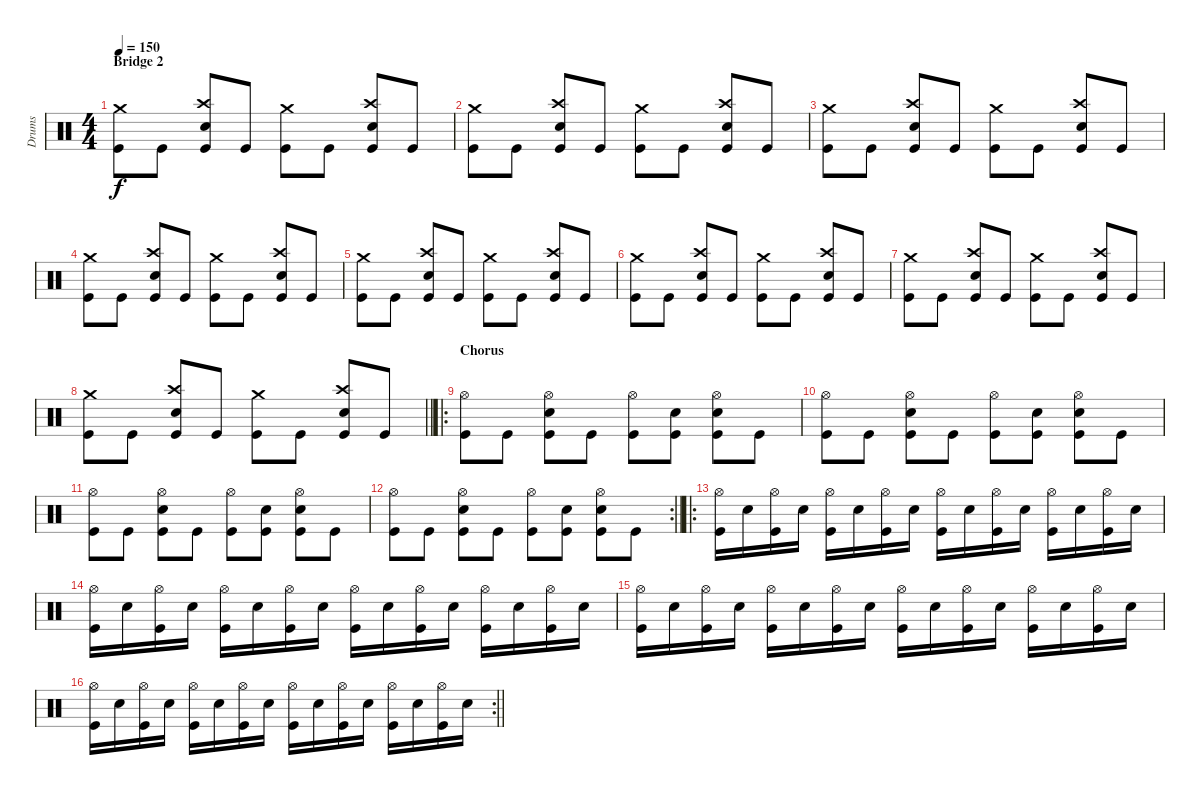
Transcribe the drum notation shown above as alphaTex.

\track ("Drums" "Drums") {instrument percussion}
\staff {score}
\articulation defaults
\ts (4 4)
\section ("" "Bridge 2")
\tempo 150
\clef neutral
\ks c
("Crash medium (hit)" "Kick (hit)").8{dy f} "Kick (hit)".8 ("Crash high (hit)" "Snare (hit) 2" "Kick (hit)").8 "Kick (hit)".8 ("Crash medium (hit)" "Kick (hit)").8 "Kick (hit)".8 ("Crash high (hit)" "Snare (hit) 2" "Kick (hit)").8 "Kick (hit)".8 |
("Crash medium (hit)" "Kick (hit)").8 "Kick (hit)".8 ("Crash high (hit)" "Snare (hit) 2" "Kick (hit)").8 "Kick (hit)".8 ("Crash medium (hit)" "Kick (hit)").8 "Kick (hit)".8 ("Crash high (hit)" "Snare (hit) 2" "Kick (hit)").8 "Kick (hit)".8 |
("Crash medium (hit)" "Kick (hit)").8 "Kick (hit)".8 ("Crash high (hit)" "Snare (hit) 2" "Kick (hit)").8 "Kick (hit)".8 ("Crash medium (hit)" "Kick (hit)").8 "Kick (hit)".8 ("Crash high (hit)" "Snare (hit) 2" "Kick (hit)").8 "Kick (hit)".8 |
("Crash medium (hit)" "Kick (hit)").8 "Kick (hit)".8 ("Crash high (hit)" "Snare (hit) 2" "Kick (hit)").8 "Kick (hit)".8 ("Crash medium (hit)" "Kick (hit)").8 "Kick (hit)".8 ("Crash high (hit)" "Snare (hit) 2" "Kick (hit)").8 "Kick (hit)".8 |
("Crash medium (hit)" "Kick (hit)").8 "Kick (hit)".8 ("Crash high (hit)" "Snare (hit) 2" "Kick (hit)").8 "Kick (hit)".8 ("Crash medium (hit)" "Kick (hit)").8 "Kick (hit)".8 ("Crash high (hit)" "Snare (hit) 2" "Kick (hit)").8 "Kick (hit)".8 |
("Crash medium (hit)" "Kick (hit)").8 "Kick (hit)".8 ("Crash high (hit)" "Snare (hit) 2" "Kick (hit)").8 "Kick (hit)".8 ("Crash medium (hit)" "Kick (hit)").8 "Kick (hit)".8 ("Crash high (hit)" "Snare (hit) 2" "Kick (hit)").8 "Kick (hit)".8 |
("Crash medium (hit)" "Kick (hit)").8 "Kick (hit)".8 ("Crash high (hit)" "Snare (hit) 2" "Kick (hit)").8 "Kick (hit)".8 ("Crash medium (hit)" "Kick (hit)").8 "Kick (hit)".8 ("Crash high (hit)" "Snare (hit) 2" "Kick (hit)").8 "Kick (hit)".8 |
\barLineRight lightlight
("Crash medium (hit)" "Kick (hit)").8 "Kick (hit)".8 ("Crash high (hit)" "Snare (hit) 2" "Kick (hit)").8 "Kick (hit)".8 ("Crash medium (hit)" "Kick (hit)").8 "Kick (hit)".8 ("Crash high (hit)" "Snare (hit) 2" "Kick (hit)").8 "Kick (hit)".8 |
\ro
\section ("" "Chorus")
("Hi-Hat (open)" "Kick (hit)").8 "Kick (hit)".8 ("Hi-Hat (open)" "Snare (hit) 2" "Kick (hit)").8 "Kick (hit)".8 ("Hi-Hat (open)" "Kick (hit)").8 ("Snare (hit) 2" "Kick (hit)").8 ("Hi-Hat (open)" "Snare (hit) 2" "Kick (hit)").8 "Kick (hit)".8 |
("Hi-Hat (open)" "Kick (hit)").8 "Kick (hit)".8 ("Hi-Hat (open)" "Snare (hit) 2" "Kick (hit)").8 "Kick (hit)".8 ("Hi-Hat (open)" "Kick (hit)").8 ("Snare (hit) 2" "Kick (hit)").8 ("Hi-Hat (open)" "Snare (hit) 2" "Kick (hit)").8 "Kick (hit)".8 |
("Hi-Hat (open)" "Kick (hit)").8 "Kick (hit)".8 ("Hi-Hat (open)" "Snare (hit) 2" "Kick (hit)").8 "Kick (hit)".8 ("Hi-Hat (open)" "Kick (hit)").8 ("Snare (hit) 2" "Kick (hit)").8 ("Hi-Hat (open)" "Snare (hit) 2" "Kick (hit)").8 "Kick (hit)".8 |
\rc 2
\barLineRight lightlight
("Hi-Hat (open)" "Kick (hit)").8 "Kick (hit)".8 ("Hi-Hat (open)" "Snare (hit) 2" "Kick (hit)").8 "Kick (hit)".8 ("Hi-Hat (open)" "Kick (hit)").8 ("Snare (hit) 2" "Kick (hit)").8 ("Hi-Hat (open)" "Snare (hit) 2" "Kick (hit)").8 "Kick (hit)".8 |
\ro
("Hi-Hat (open)" "Kick (hit)").16 "Snare (hit) 2".16 ("Hi-Hat (open)" "Kick (hit)").16 "Snare (hit) 2".16 ("Hi-Hat (open)" "Kick (hit)").16 "Snare (hit) 2".16 ("Hi-Hat (open)" "Kick (hit)").16 "Snare (hit) 2".16 ("Hi-Hat (open)" "Kick (hit)").16 "Snare (hit) 2".16 ("Hi-Hat (open)" "Kick (hit)").16 "Snare (hit) 2".16 ("Hi-Hat (open)" "Kick (hit)").16 "Snare (hit) 2".16 ("Hi-Hat (open)" "Kick (hit)").16 "Snare (hit) 2".16 |
("Hi-Hat (open)" "Kick (hit)").16 "Snare (hit) 2".16 ("Hi-Hat (open)" "Kick (hit)").16 "Snare (hit) 2".16 ("Hi-Hat (open)" "Kick (hit)").16 "Snare (hit) 2".16 ("Hi-Hat (open)" "Kick (hit)").16 "Snare (hit) 2".16 ("Hi-Hat (open)" "Kick (hit)").16 "Snare (hit) 2".16 ("Hi-Hat (open)" "Kick (hit)").16 "Snare (hit) 2".16 ("Hi-Hat (open)" "Kick (hit)").16 "Snare (hit) 2".16 ("Hi-Hat (open)" "Kick (hit)").16 "Snare (hit) 2".16 |
("Hi-Hat (open)" "Kick (hit)").16 "Snare (hit) 2".16 ("Hi-Hat (open)" "Kick (hit)").16 "Snare (hit) 2".16 ("Hi-Hat (open)" "Kick (hit)").16 "Snare (hit) 2".16 ("Hi-Hat (open)" "Kick (hit)").16 "Snare (hit) 2".16 ("Hi-Hat (open)" "Kick (hit)").16 "Snare (hit) 2".16 ("Hi-Hat (open)" "Kick (hit)").16 "Snare (hit) 2".16 ("Hi-Hat (open)" "Kick (hit)").16 "Snare (hit) 2".16 ("Hi-Hat (open)" "Kick (hit)").16 "Snare (hit) 2".16 |
\rc 2
\barLineRight lightlight
("Hi-Hat (open)" "Kick (hit)").16 "Snare (hit) 2".16 ("Hi-Hat (open)" "Kick (hit)").16 "Snare (hit) 2".16 ("Hi-Hat (open)" "Kick (hit)").16 "Snare (hit) 2".16 ("Hi-Hat (open)" "Kick (hit)").16 "Snare (hit) 2".16 ("Hi-Hat (open)" "Kick (hit)").16 "Snare (hit) 2".16 ("Hi-Hat (open)" "Kick (hit)").16 "Snare (hit) 2".16 ("Hi-Hat (open)" "Kick (hit)").16 "Snare (hit) 2".16 ("Hi-Hat (open)" "Kick (hit)").16 "Snare (hit) 2".16
